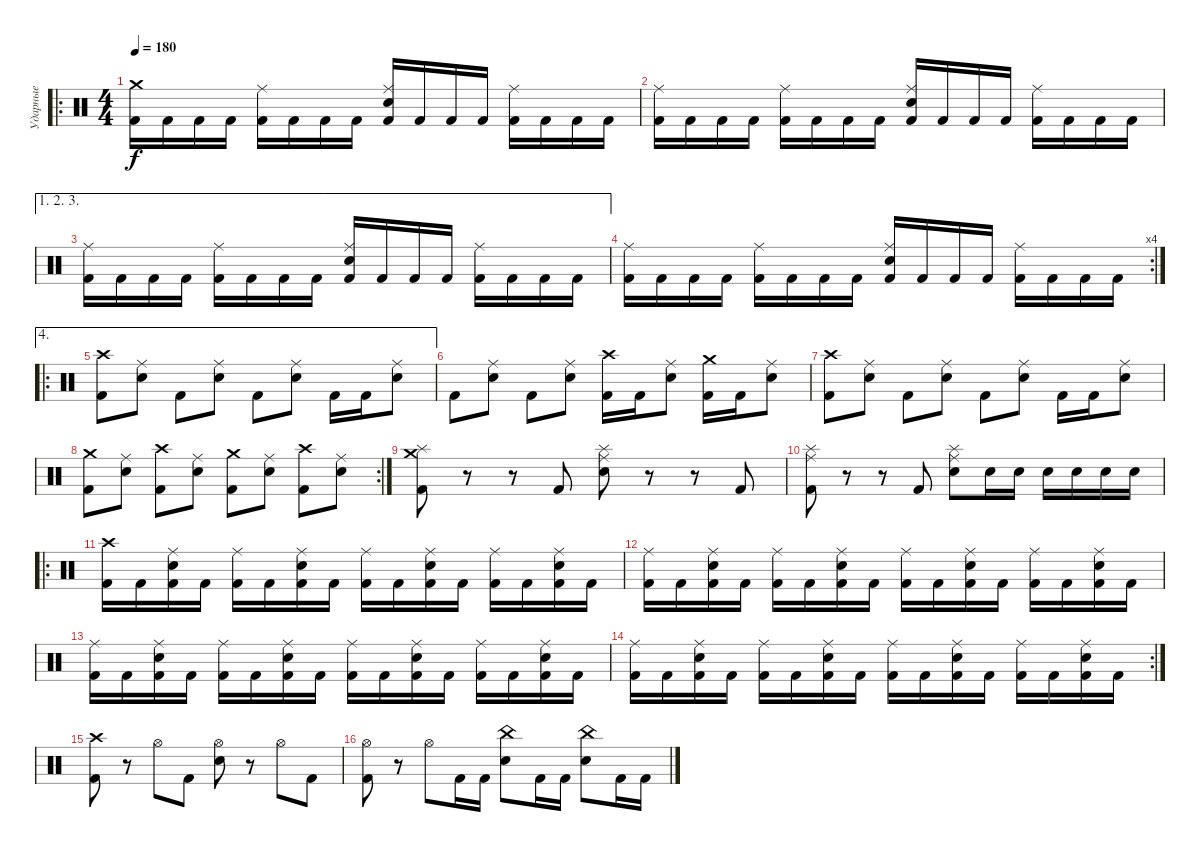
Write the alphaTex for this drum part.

\track ("Ударные" "Ударные") {instrument percussion}
\staff {score}
\articulation defaults
\ro
\ts (4 4)
\tempo 180
\clef neutral
\ks c
("Kick (hit) 2" "Crash medium (hit)").16{dy f} "Kick (hit) 2".16 "Kick (hit) 2".16 "Kick (hit) 2".16 ("Kick (hit) 2" "Ride (middle)").16 "Kick (hit) 2".16 "Kick (hit) 2".16 "Kick (hit) 2".16 ("Kick (hit) 2" "Electric Snare (hit)" "Ride (middle)").16 "Kick (hit) 2".16 "Kick (hit) 2".16 "Kick (hit) 2".16 ("Kick (hit) 2" "Ride (middle)").16 "Kick (hit) 2".16 "Kick (hit) 2".16 "Kick (hit) 2".16 |
("Kick (hit) 2" "Ride (middle)").16 "Kick (hit) 2".16 "Kick (hit) 2".16 "Kick (hit) 2".16 ("Kick (hit) 2" "Ride (middle)").16 "Kick (hit) 2".16 "Kick (hit) 2".16 "Kick (hit) 2".16 ("Kick (hit) 2" "Electric Snare (hit)" "Ride (middle)").16 "Kick (hit) 2".16 "Kick (hit) 2".16 "Kick (hit) 2".16 ("Kick (hit) 2" "Ride (middle)").16 "Kick (hit) 2".16 "Kick (hit) 2".16 "Kick (hit) 2".16 |
\ae (1 2 3)
("Kick (hit) 2" "Ride (middle)").16 "Kick (hit) 2".16 "Kick (hit) 2".16 "Kick (hit) 2".16 ("Kick (hit) 2" "Ride (middle)").16 "Kick (hit) 2".16 "Kick (hit) 2".16 "Kick (hit) 2".16 ("Kick (hit) 2" "Electric Snare (hit)" "Ride (middle)").16 "Kick (hit) 2".16 "Kick (hit) 2".16 "Kick (hit) 2".16 ("Kick (hit) 2" "Ride (middle)").16 "Kick (hit) 2".16 "Kick (hit) 2".16 "Kick (hit) 2".16 |
\rc 4
("Kick (hit) 2" "Ride (middle)").16 "Kick (hit) 2".16 "Kick (hit) 2".16 "Kick (hit) 2".16 ("Kick (hit) 2" "Ride (middle)").16 "Kick (hit) 2".16 "Kick (hit) 2".16 "Kick (hit) 2".16 ("Kick (hit) 2" "Electric Snare (hit)" "Ride (middle)").16 "Kick (hit) 2".16 "Kick (hit) 2".16 "Kick (hit) 2".16 ("Kick (hit) 2" "Ride (middle)").16 "Kick (hit) 2".16 "Kick (hit) 2".16 "Kick (hit) 2".16 |
\ae 4
\ro
("Kick (hit) 2" "Crash high (hit)").8 ("Electric Snare (hit)" "Ride (middle)").8 "Kick (hit) 2".8 ("Electric Snare (hit)" "Ride (middle)").8 "Kick (hit) 2".8 ("Electric Snare (hit)" "Ride (middle)").8 "Kick (hit) 2".16 "Kick (hit) 2".16 ("Electric Snare (hit)" "Ride (middle)").8 |
"Kick (hit) 2".8 ("Electric Snare (hit)" "Ride (middle)").8 "Kick (hit) 2".8 ("Electric Snare (hit)" "Ride (middle)").8 ("Kick (hit) 2" "Crash high (hit)").16 "Kick (hit) 2".16 ("Electric Snare (hit)" "Ride (middle)").8 ("Kick (hit) 2" "Crash medium (hit)").16 "Kick (hit) 2".16 ("Electric Snare (hit)" "Ride (middle)").8 |
("Kick (hit) 2" "Crash high (hit)").8 ("Electric Snare (hit)" "Ride (middle)").8 "Kick (hit) 2".8 ("Electric Snare (hit)" "Ride (middle)").8 "Kick (hit) 2".8 ("Electric Snare (hit)" "Ride (middle)").8 "Kick (hit) 2".16 "Kick (hit) 2".16 ("Electric Snare (hit)" "Ride (middle)").8 |
\rc 2
("Kick (hit) 2" "Crash medium (hit)").8 ("Electric Snare (hit)" "Ride (middle)").8 ("Kick (hit) 2" "Crash high (hit)").8 ("Electric Snare (hit)" "Ride (middle)").8 ("Kick (hit) 2" "Crash medium (hit)").8 ("Electric Snare (hit)" "Ride (middle)").8 ("Kick (hit) 2" "Crash high (hit)").8 ("Electric Snare (hit)" "Ride (middle)").8 |
("Kick (hit) 2" "Crash medium (hit)" "Splash (hit)").8 r.8 r.8 "Kick (hit) 2".8 ("Electric Snare (hit)" "Ride (middle)" "Splash (hit)").8 r.8 r.8 "Kick (hit) 2".8 |
("Kick (hit) 2" "Ride (middle)" "Splash (hit)").8 r.8 r.8 "Kick (hit) 2".8 ("Electric Snare (hit)" "Ride (middle)" "Splash (hit)").8 "Electric Snare (hit)".16 "Electric Snare (hit)".16 "Electric Snare (hit)".16 "Electric Snare (hit)".16 "Electric Snare (hit)".16 "Electric Snare (hit)".16 |
\ro
("Kick (hit) 2" "Crash high (hit)").16 "Kick (hit) 2".16 ("Kick (hit) 2" "Electric Snare (hit)" "Ride (middle)").16 "Kick (hit) 2".16 ("Kick (hit) 2" "Ride (middle)").16 "Kick (hit) 2".16 ("Kick (hit) 2" "Electric Snare (hit)" "Ride (middle)").16 "Kick (hit) 2".16 ("Kick (hit) 2" "Ride (middle)").16 "Kick (hit) 2".16 ("Kick (hit) 2" "Electric Snare (hit)" "Ride (middle)").16 "Kick (hit) 2".16 ("Kick (hit) 2" "Ride (middle)").16 "Kick (hit) 2".16 ("Kick (hit) 2" "Electric Snare (hit)" "Ride (middle)").16 "Kick (hit) 2".16 |
("Kick (hit) 2" "Ride (middle)").16 "Kick (hit) 2".16 ("Kick (hit) 2" "Electric Snare (hit)" "Ride (middle)").16 "Kick (hit) 2".16 ("Kick (hit) 2" "Ride (middle)").16 "Kick (hit) 2".16 ("Kick (hit) 2" "Electric Snare (hit)" "Ride (middle)").16 "Kick (hit) 2".16 ("Kick (hit) 2" "Ride (middle)").16 "Kick (hit) 2".16 ("Kick (hit) 2" "Electric Snare (hit)" "Ride (middle)").16 "Kick (hit) 2".16 ("Kick (hit) 2" "Ride (middle)").16 "Kick (hit) 2".16 ("Kick (hit) 2" "Electric Snare (hit)" "Ride (middle)").16 "Kick (hit) 2".16 |
("Kick (hit) 2" "Ride (middle)").16 "Kick (hit) 2".16 ("Kick (hit) 2" "Electric Snare (hit)" "Ride (middle)").16 "Kick (hit) 2".16 ("Kick (hit) 2" "Ride (middle)").16 "Kick (hit) 2".16 ("Kick (hit) 2" "Electric Snare (hit)" "Ride (middle)").16 "Kick (hit) 2".16 ("Kick (hit) 2" "Ride (middle)").16 "Kick (hit) 2".16 ("Kick (hit) 2" "Electric Snare (hit)" "Ride (middle)").16 "Kick (hit) 2".16 ("Kick (hit) 2" "Ride (middle)").16 "Kick (hit) 2".16 ("Kick (hit) 2" "Electric Snare (hit)" "Ride (middle)").16 "Kick (hit) 2".16 |
\rc 2
("Kick (hit) 2" "Ride (middle)").16 "Kick (hit) 2".16 ("Kick (hit) 2" "Electric Snare (hit)" "Ride (middle)").16 "Kick (hit) 2".16 ("Kick (hit) 2" "Ride (middle)").16 "Kick (hit) 2".16 ("Kick (hit) 2" "Electric Snare (hit)" "Ride (middle)").16 "Kick (hit) 2".16 ("Kick (hit) 2" "Ride (middle)").16 "Kick (hit) 2".16 ("Kick (hit) 2" "Electric Snare (hit)" "Ride (middle)").16 "Kick (hit) 2".16 ("Kick (hit) 2" "Ride (middle)").16 "Kick (hit) 2".16 ("Kick (hit) 2" "Electric Snare (hit)" "Ride (middle)").16 "Kick (hit) 2".16 |
("Kick (hit) 2" "Crash high (hit)").8 r.8 "Hi-Hat (open)".8 "Kick (hit) 2".8 ("Electric Snare (hit)" "Hi-Hat (open)").8 r.8 "Hi-Hat (open)".8 "Kick (hit) 2".8 |
("Kick (hit) 2" "Hi-Hat (open)").8 r.8 "Hi-Hat (open)".8 "Kick (hit) 2".16 "Kick (hit) 2".16 ("Electric Snare (hit)" "China (hit)").8 "Kick (hit) 2".16 "Kick (hit) 2".16 ("Electric Snare (hit)" "China (hit)").8 "Kick (hit) 2".16 "Kick (hit) 2".16
